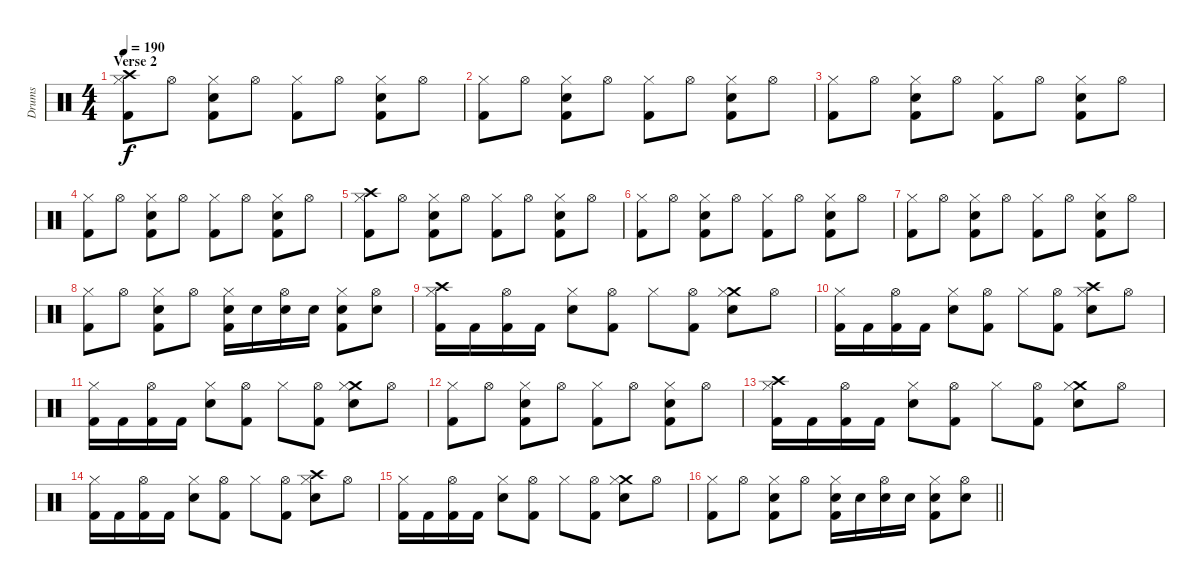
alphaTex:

\track ("Drums" "Drums") {instrument percussion}
\staff {score}
\articulation defaults
\ts (4 4)
\section ("" "Verse 2")
\tempo 190
\clef neutral
\ks c
("Crash high (hit)" "Hi-Hat (closed)" "Kick (hit) 2").8{dy f} "Hi-Hat (open)".8 ("Hi-Hat (closed)" "Snare (hit) 2" "Kick (hit) 2").8 "Hi-Hat (open)".8 ("Hi-Hat (closed)" "Kick (hit) 2").8 "Hi-Hat (open)".8 ("Hi-Hat (closed)" "Snare (hit) 2" "Kick (hit) 2").8 "Hi-Hat (open)".8 |
("Hi-Hat (closed)" "Kick (hit) 2").8 "Hi-Hat (open)".8 ("Hi-Hat (closed)" "Snare (hit) 2" "Kick (hit) 2").8 "Hi-Hat (open)".8 ("Hi-Hat (closed)" "Kick (hit) 2").8 "Hi-Hat (open)".8 ("Hi-Hat (closed)" "Snare (hit) 2" "Kick (hit) 2").8 "Hi-Hat (open)".8 |
("Hi-Hat (closed)" "Kick (hit) 2").8 "Hi-Hat (open)".8 ("Hi-Hat (closed)" "Snare (hit) 2" "Kick (hit) 2").8 "Hi-Hat (open)".8 ("Hi-Hat (closed)" "Kick (hit) 2").8 "Hi-Hat (open)".8 ("Hi-Hat (closed)" "Snare (hit) 2" "Kick (hit) 2").8 "Hi-Hat (open)".8 |
("Hi-Hat (closed)" "Kick (hit) 2").8 "Hi-Hat (open)".8 ("Hi-Hat (closed)" "Snare (hit) 2" "Kick (hit) 2").8 "Hi-Hat (open)".8 ("Hi-Hat (closed)" "Kick (hit) 2").8 "Hi-Hat (open)".8 ("Hi-Hat (closed)" "Snare (hit) 2" "Kick (hit) 2").8 "Hi-Hat (open)".8 |
("Crash high (hit)" "Hi-Hat (closed)" "Kick (hit) 2").8 "Hi-Hat (open)".8 ("Hi-Hat (closed)" "Snare (hit) 2" "Kick (hit) 2").8 "Hi-Hat (open)".8 ("Hi-Hat (closed)" "Kick (hit) 2").8 "Hi-Hat (open)".8 ("Hi-Hat (closed)" "Snare (hit) 2" "Kick (hit) 2").8 "Hi-Hat (open)".8 |
("Hi-Hat (closed)" "Kick (hit) 2").8 "Hi-Hat (open)".8 ("Hi-Hat (closed)" "Snare (hit) 2" "Kick (hit) 2").8 "Hi-Hat (open)".8 ("Hi-Hat (closed)" "Kick (hit) 2").8 "Hi-Hat (open)".8 ("Hi-Hat (closed)" "Snare (hit) 2" "Kick (hit) 2").8 "Hi-Hat (open)".8 |
("Hi-Hat (closed)" "Kick (hit) 2").8 "Hi-Hat (open)".8 ("Hi-Hat (closed)" "Snare (hit) 2" "Kick (hit) 2").8 "Hi-Hat (open)".8 ("Hi-Hat (closed)" "Kick (hit) 2").8 "Hi-Hat (open)".8 ("Hi-Hat (closed)" "Snare (hit) 2" "Kick (hit) 2").8 "Hi-Hat (open)".8 |
("Hi-Hat (closed)" "Kick (hit) 2").8 "Hi-Hat (open)".8 ("Hi-Hat (closed)" "Snare (hit) 2" "Kick (hit) 2").8 "Hi-Hat (open)".8 ("Hi-Hat (closed)" "Snare (hit) 2" "Kick (hit) 2").16 "Snare (hit) 2".16 ("Hi-Hat (open)" "Snare (hit) 2").16 "Snare (hit) 2".16 ("Hi-Hat (closed)" "Snare (hit) 2" "Kick (hit) 2").8 ("Hi-Hat (open)" "Snare (hit) 2").8 |
("Crash high (hit)" "Hi-Hat (closed)" "Kick (hit) 2").16 "Kick (hit) 2".16 ("Hi-Hat (open)" "Kick (hit) 2").16 "Kick (hit) 2".16 ("Hi-Hat (closed)" "Snare (hit) 2").8 ("Hi-Hat (open)" "Kick (hit) 2").8 "Hi-Hat (closed)".8 ("Hi-Hat (open)" "Kick (hit) 2").8 ("Crash medium (hit)" "Hi-Hat (closed)" "Snare (hit) 2").8 "Hi-Hat (open)".8 |
("Hi-Hat (closed)" "Kick (hit) 2").16 "Kick (hit) 2".16 ("Hi-Hat (open)" "Kick (hit) 2").16 "Kick (hit) 2".16 ("Hi-Hat (closed)" "Snare (hit) 2").8 ("Hi-Hat (open)" "Kick (hit) 2").8 "Hi-Hat (closed)".8 ("Hi-Hat (open)" "Kick (hit) 2").8 ("Crash high (hit)" "Hi-Hat (closed)" "Snare (hit) 2").8 "Hi-Hat (open)".8 |
("Hi-Hat (closed)" "Kick (hit) 2").16 "Kick (hit) 2".16 ("Hi-Hat (open)" "Kick (hit) 2").16 "Kick (hit) 2".16 ("Hi-Hat (closed)" "Snare (hit) 2").8 ("Hi-Hat (open)" "Kick (hit) 2").8 "Hi-Hat (closed)".8 ("Hi-Hat (open)" "Kick (hit) 2").8 ("Crash medium (hit)" "Hi-Hat (closed)" "Snare (hit) 2").8 "Hi-Hat (open)".8 |
("Hi-Hat (closed)" "Kick (hit) 2").8 "Hi-Hat (open)".8 ("Hi-Hat (closed)" "Snare (hit) 2" "Kick (hit) 2").8 "Hi-Hat (open)".8 ("Hi-Hat (closed)" "Kick (hit) 2").8 "Hi-Hat (open)".8 ("Hi-Hat (closed)" "Snare (hit) 2" "Kick (hit) 2").8 "Hi-Hat (open)".8 |
("Crash high (hit)" "Hi-Hat (closed)" "Kick (hit) 2").16 "Kick (hit) 2".16 ("Hi-Hat (open)" "Kick (hit) 2").16 "Kick (hit) 2".16 ("Hi-Hat (closed)" "Snare (hit) 2").8 ("Hi-Hat (open)" "Kick (hit) 2").8 "Hi-Hat (closed)".8 ("Hi-Hat (open)" "Kick (hit) 2").8 ("Crash medium (hit)" "Hi-Hat (closed)" "Snare (hit) 2").8 "Hi-Hat (open)".8 |
("Hi-Hat (closed)" "Kick (hit) 2").16 "Kick (hit) 2".16 ("Hi-Hat (open)" "Kick (hit) 2").16 "Kick (hit) 2".16 ("Hi-Hat (closed)" "Snare (hit) 2").8 ("Hi-Hat (open)" "Kick (hit) 2").8 "Hi-Hat (closed)".8 ("Hi-Hat (open)" "Kick (hit) 2").8 ("Crash high (hit)" "Hi-Hat (closed)" "Snare (hit) 2").8 "Hi-Hat (open)".8 |
("Hi-Hat (closed)" "Kick (hit) 2").16 "Kick (hit) 2".16 ("Hi-Hat (open)" "Kick (hit) 2").16 "Kick (hit) 2".16 ("Hi-Hat (closed)" "Snare (hit) 2").8 ("Hi-Hat (open)" "Kick (hit) 2").8 "Hi-Hat (closed)".8 ("Hi-Hat (open)" "Kick (hit) 2").8 ("Crash medium (hit)" "Hi-Hat (closed)" "Snare (hit) 2").8 "Hi-Hat (open)".8 |
\barLineRight lightlight
("Hi-Hat (closed)" "Kick (hit) 2").8 "Hi-Hat (open)".8 ("Hi-Hat (closed)" "Snare (hit) 2" "Kick (hit) 2").8 "Hi-Hat (open)".8 ("Hi-Hat (closed)" "Snare (hit) 2" "Kick (hit) 2").16 "Snare (hit) 2".16 ("Hi-Hat (open)" "Snare (hit) 2").16 "Snare (hit) 2".16 ("Hi-Hat (closed)" "Snare (hit) 2" "Kick (hit) 2").8 ("Hi-Hat (open)" "Snare (hit) 2").8
